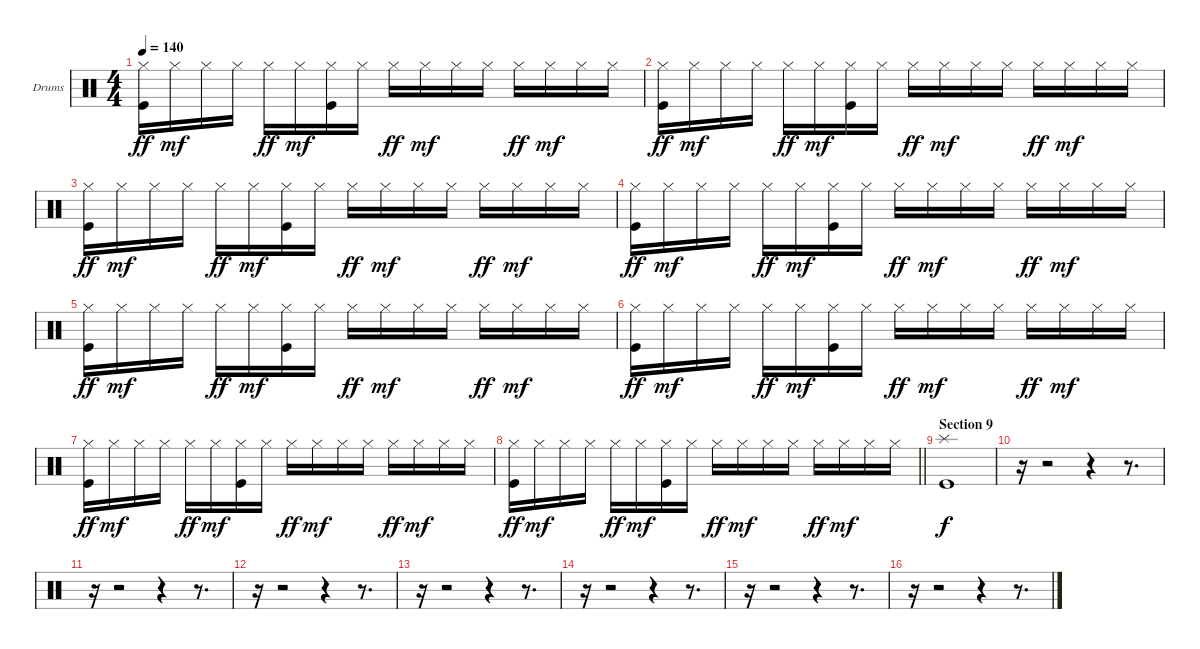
\bracketExtendMode groupsimilarinstruments
\firstSystemTrackNameOrientation horizontal
\otherSystemsTrackNameOrientation horizontal
\track ("Drumkit" "Drums") {instrument percussion}
\staff {score}
\articulation defaults
\ts (4 4)
\tempo 140
\clef neutral
\ks c
("Hi-Hat (closed)" "Kick (hit)").16{dy ff} "Hi-Hat (closed)".16{dy mf} "Hi-Hat (closed)".16 "Hi-Hat (closed)".16 "Hi-Hat (closed)".16{dy ff} "Hi-Hat (closed)".16{dy mf} ("Hi-Hat (closed)" "Kick (hit)").16 "Hi-Hat (closed)".16 "Hi-Hat (closed)".16{dy ff} "Hi-Hat (closed)".16{dy mf} "Hi-Hat (closed)".16 "Hi-Hat (closed)".16 "Hi-Hat (closed)".16{dy ff} "Hi-Hat (closed)".16{dy mf} "Hi-Hat (closed)".16 "Hi-Hat (closed)".16 |
("Hi-Hat (closed)" "Kick (hit)").16{dy ff} "Hi-Hat (closed)".16{dy mf} "Hi-Hat (closed)".16 "Hi-Hat (closed)".16 "Hi-Hat (closed)".16{dy ff} "Hi-Hat (closed)".16{dy mf} ("Hi-Hat (closed)" "Kick (hit)").16 "Hi-Hat (closed)".16 "Hi-Hat (closed)".16{dy ff} "Hi-Hat (closed)".16{dy mf} "Hi-Hat (closed)".16 "Hi-Hat (closed)".16 "Hi-Hat (closed)".16{dy ff} "Hi-Hat (closed)".16{dy mf} "Hi-Hat (closed)".16 "Hi-Hat (closed)".16 |
("Hi-Hat (closed)" "Kick (hit)").16{dy ff} "Hi-Hat (closed)".16{dy mf} "Hi-Hat (closed)".16 "Hi-Hat (closed)".16 "Hi-Hat (closed)".16{dy ff} "Hi-Hat (closed)".16{dy mf} ("Hi-Hat (closed)" "Kick (hit)").16 "Hi-Hat (closed)".16 "Hi-Hat (closed)".16{dy ff} "Hi-Hat (closed)".16{dy mf} "Hi-Hat (closed)".16 "Hi-Hat (closed)".16 "Hi-Hat (closed)".16{dy ff} "Hi-Hat (closed)".16{dy mf} "Hi-Hat (closed)".16 "Hi-Hat (closed)".16 |
("Hi-Hat (closed)" "Kick (hit)").16{dy ff} "Hi-Hat (closed)".16{dy mf} "Hi-Hat (closed)".16 "Hi-Hat (closed)".16 "Hi-Hat (closed)".16{dy ff} "Hi-Hat (closed)".16{dy mf} ("Hi-Hat (closed)" "Kick (hit)").16 "Hi-Hat (closed)".16 "Hi-Hat (closed)".16{dy ff} "Hi-Hat (closed)".16{dy mf} "Hi-Hat (closed)".16 "Hi-Hat (closed)".16 "Hi-Hat (closed)".16{dy ff} "Hi-Hat (closed)".16{dy mf} "Hi-Hat (closed)".16 "Hi-Hat (closed)".16 |
("Hi-Hat (closed)" "Kick (hit)").16{dy ff} "Hi-Hat (closed)".16{dy mf} "Hi-Hat (closed)".16 "Hi-Hat (closed)".16 "Hi-Hat (closed)".16{dy ff} "Hi-Hat (closed)".16{dy mf} ("Hi-Hat (closed)" "Kick (hit)").16 "Hi-Hat (closed)".16 "Hi-Hat (closed)".16{dy ff} "Hi-Hat (closed)".16{dy mf} "Hi-Hat (closed)".16 "Hi-Hat (closed)".16 "Hi-Hat (closed)".16{dy ff} "Hi-Hat (closed)".16{dy mf} "Hi-Hat (closed)".16 "Hi-Hat (closed)".16 |
("Hi-Hat (closed)" "Kick (hit)").16{dy ff} "Hi-Hat (closed)".16{dy mf} "Hi-Hat (closed)".16 "Hi-Hat (closed)".16 "Hi-Hat (closed)".16{dy ff} "Hi-Hat (closed)".16{dy mf} ("Hi-Hat (closed)" "Kick (hit)").16 "Hi-Hat (closed)".16 "Hi-Hat (closed)".16{dy ff} "Hi-Hat (closed)".16{dy mf} "Hi-Hat (closed)".16 "Hi-Hat (closed)".16 "Hi-Hat (closed)".16{dy ff} "Hi-Hat (closed)".16{dy mf} "Hi-Hat (closed)".16 "Hi-Hat (closed)".16 |
("Hi-Hat (closed)" "Kick (hit)").16{dy ff} "Hi-Hat (closed)".16{dy mf} "Hi-Hat (closed)".16 "Hi-Hat (closed)".16 "Hi-Hat (closed)".16{dy ff} "Hi-Hat (closed)".16{dy mf} ("Hi-Hat (closed)" "Kick (hit)").16 "Hi-Hat (closed)".16 "Hi-Hat (closed)".16{dy ff} "Hi-Hat (closed)".16{dy mf} "Hi-Hat (closed)".16 "Hi-Hat (closed)".16 "Hi-Hat (closed)".16{dy ff} "Hi-Hat (closed)".16{dy mf} "Hi-Hat (closed)".16 "Hi-Hat (closed)".16 |
\barLineRight lightlight
("Hi-Hat (closed)" "Kick (hit)").16{dy ff} "Hi-Hat (closed)".16{dy mf} "Hi-Hat (closed)".16 "Hi-Hat (closed)".16 "Hi-Hat (closed)".16{dy ff} "Hi-Hat (closed)".16{dy mf} ("Hi-Hat (closed)" "Kick (hit)").16 "Hi-Hat (closed)".16 "Hi-Hat (closed)".16{dy ff} "Hi-Hat (closed)".16{dy mf} "Hi-Hat (closed)".16 "Hi-Hat (closed)".16 "Hi-Hat (closed)".16{dy ff} "Hi-Hat (closed)".16{dy mf} "Hi-Hat (closed)".16 "Hi-Hat (closed)".16 |
\section ("" "Section 9")
("Splash (hit)" "Kick (hit)").1{dy f} |
r.16 r.2 r.4 r.8{d} |
r.16 r.2 r.4 r.8{d} |
r.16 r.2 r.4 r.8{d} |
r.16 r.2 r.4 r.8{d} |
r.16 r.2 r.4 r.8{d} |
r.16 r.2 r.4 r.8{d} |
r.16 r.2 r.4 r.8{d}
